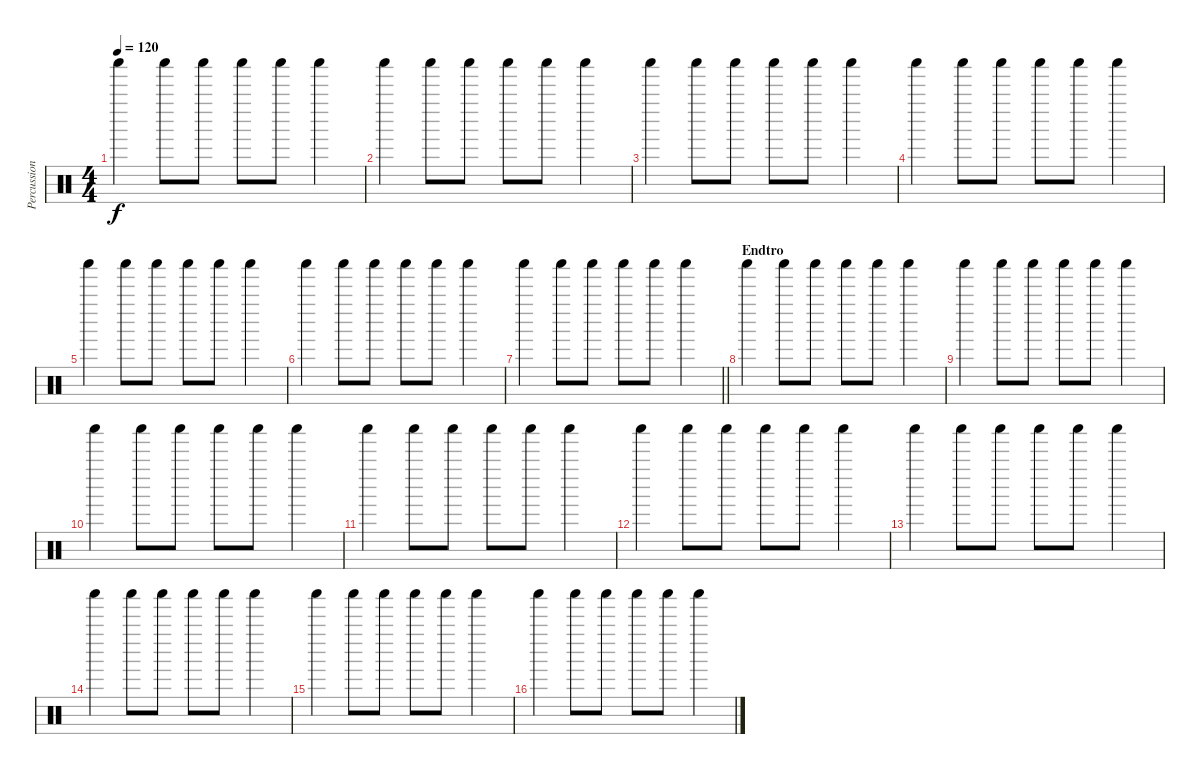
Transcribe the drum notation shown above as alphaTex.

\track ("Percussion" "Percussion") {instrument percussion}
\staff {score}
\articulation defaults
\ts (4 4)
\tempo 120
\clef neutral
\ks c "Shaker (hit)".4{dy f} "Shaker (hit)".8 "Shaker (hit)".8 "Shaker (hit)".8 "Shaker (hit)".8 "Shaker (hit)".4
|
"Shaker (hit)".4 "Shaker (hit)".8 "Shaker (hit)".8 "Shaker (hit)".8 "Shaker (hit)".8 "Shaker (hit)".4 |
"Shaker (hit)".4 "Shaker (hit)".8 "Shaker (hit)".8 "Shaker (hit)".8 "Shaker (hit)".8 "Shaker (hit)".4 |
"Shaker (hit)".4 "Shaker (hit)".8 "Shaker (hit)".8 "Shaker (hit)".8 "Shaker (hit)".8 "Shaker (hit)".4 |
"Shaker (hit)".4 "Shaker (hit)".8 "Shaker (hit)".8 "Shaker (hit)".8 "Shaker (hit)".8 "Shaker (hit)".4 |
"Shaker (hit)".4 "Shaker (hit)".8 "Shaker (hit)".8 "Shaker (hit)".8 "Shaker (hit)".8 "Shaker (hit)".4 |
\barLineRight lightlight "Shaker (hit)".4 "Shaker (hit)".8 "Shaker (hit)".8 "Shaker (hit)".8 "Shaker (hit)".8 "Shaker (hit)".4
|
\section ("" "Endtro")
"Shaker (hit)".4 "Shaker (hit)".8 "Shaker (hit)".8 "Shaker (hit)".8 "Shaker (hit)".8 "Shaker (hit)".4 |
"Shaker (hit)".4 "Shaker (hit)".8 "Shaker (hit)".8 "Shaker (hit)".8 "Shaker (hit)".8 "Shaker (hit)".4 |
"Shaker (hit)".4 "Shaker (hit)".8 "Shaker (hit)".8 "Shaker (hit)".8 "Shaker (hit)".8 "Shaker (hit)".4 |
"Shaker (hit)".4 "Shaker (hit)".8 "Shaker (hit)".8 "Shaker (hit)".8 "Shaker (hit)".8 "Shaker (hit)".4 |
"Shaker (hit)".4 "Shaker (hit)".8 "Shaker (hit)".8 "Shaker (hit)".8 "Shaker (hit)".8 "Shaker (hit)".4 |
"Shaker (hit)".4 "Shaker (hit)".8 "Shaker (hit)".8 "Shaker (hit)".8 "Shaker (hit)".8 "Shaker (hit)".4 |
"Shaker (hit)".4 "Shaker (hit)".8 "Shaker (hit)".8 "Shaker (hit)".8 "Shaker (hit)".8 "Shaker (hit)".4 |
"Shaker (hit)".4 "Shaker (hit)".8 "Shaker (hit)".8 "Shaker (hit)".8 "Shaker (hit)".8 "Shaker (hit)".4 |
"Shaker (hit)".4 "Shaker (hit)".8 "Shaker (hit)".8 "Shaker (hit)".8 "Shaker (hit)".8 "Shaker (hit)".4
